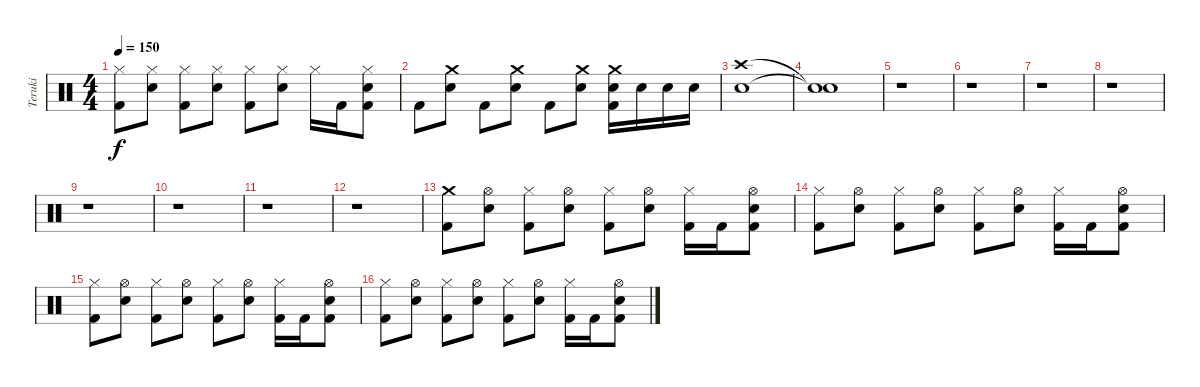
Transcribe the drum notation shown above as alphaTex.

\track ("Teruki" "Teruki") {instrument percussion}
\staff {score}
\articulation defaults
\ts (4 4)
\tempo 150
\clef neutral
\ks c
("Hi-Hat (closed)" "Kick (hit) 2").8{dy f} ("Hi-Hat (closed)" "Electric Snare (hit)").8 ("Hi-Hat (closed)" "Kick (hit) 2").8 ("Hi-Hat (closed)" "Electric Snare (hit)").8 ("Hi-Hat (closed)" "Kick (hit) 2").8 ("Hi-Hat (closed)" "Electric Snare (hit)").8 "Hi-Hat (closed)".16 "Kick (hit) 2".16 ("Hi-Hat (closed)" "Electric Snare (hit)" "Kick (hit) 2").8 |
"Kick (hit) 2".8 ("Crash medium (hit)" "Electric Snare (hit)").8 "Kick (hit) 2".8 ("Crash medium (hit)" "Electric Snare (hit)").8 "Kick (hit) 2".8 ("Crash medium (hit)" "Electric Snare (hit)").8 ("Crash medium (hit)" "Electric Snare (hit)" "Kick (hit) 2").16 "Electric Snare (hit)".16 "Electric Snare (hit)".16 "Electric Snare (hit)".16 |
("Crash high (hit)" "Electric Snare (hit)").1 |
("Snare (hit)"{t} "Snare (hit)"{t}).1 |
r.1 |
r.1 |
r.1 |
r.1 |
r.1 |
r.1 |
r.1 |
r.1 |
("Crash medium (hit)" "Kick (hit) 2").8 ("Hi-Hat (open)" "Electric Snare (hit)").8 ("Hi-Hat (closed)" "Kick (hit) 2").8 ("Hi-Hat (open)" "Electric Snare (hit)").8 ("Hi-Hat (closed)" "Kick (hit) 2").8 ("Hi-Hat (open)" "Electric Snare (hit)").8 ("Hi-Hat (closed)" "Kick (hit) 2").16 "Kick (hit) 2".16 ("Hi-Hat (open)" "Electric Snare (hit)" "Kick (hit) 2").8 |
("Hi-Hat (closed)" "Kick (hit) 2").8 ("Hi-Hat (open)" "Electric Snare (hit)").8 ("Hi-Hat (closed)" "Kick (hit) 2").8 ("Hi-Hat (open)" "Electric Snare (hit)").8 ("Hi-Hat (closed)" "Kick (hit) 2").8 ("Hi-Hat (open)" "Electric Snare (hit)").8 ("Hi-Hat (closed)" "Kick (hit) 2").16 "Kick (hit) 2".16 ("Hi-Hat (open)" "Electric Snare (hit)" "Kick (hit) 2").8 |
("Hi-Hat (closed)" "Kick (hit) 2").8 ("Hi-Hat (open)" "Electric Snare (hit)").8 ("Hi-Hat (closed)" "Kick (hit) 2").8 ("Hi-Hat (open)" "Electric Snare (hit)").8 ("Hi-Hat (closed)" "Kick (hit) 2").8 ("Hi-Hat (open)" "Electric Snare (hit)").8 ("Hi-Hat (closed)" "Kick (hit) 2").16 "Kick (hit) 2".16 ("Hi-Hat (open)" "Electric Snare (hit)" "Kick (hit) 2").8 |
("Hi-Hat (closed)" "Kick (hit) 2").8 ("Hi-Hat (open)" "Electric Snare (hit)").8 ("Hi-Hat (closed)" "Kick (hit) 2").8 ("Hi-Hat (open)" "Electric Snare (hit)").8 ("Hi-Hat (closed)" "Kick (hit) 2").8 ("Hi-Hat (open)" "Electric Snare (hit)").8 ("Hi-Hat (closed)" "Kick (hit) 2").16 "Kick (hit) 2".16 ("Hi-Hat (open)" "Electric Snare (hit)" "Kick (hit) 2").8
